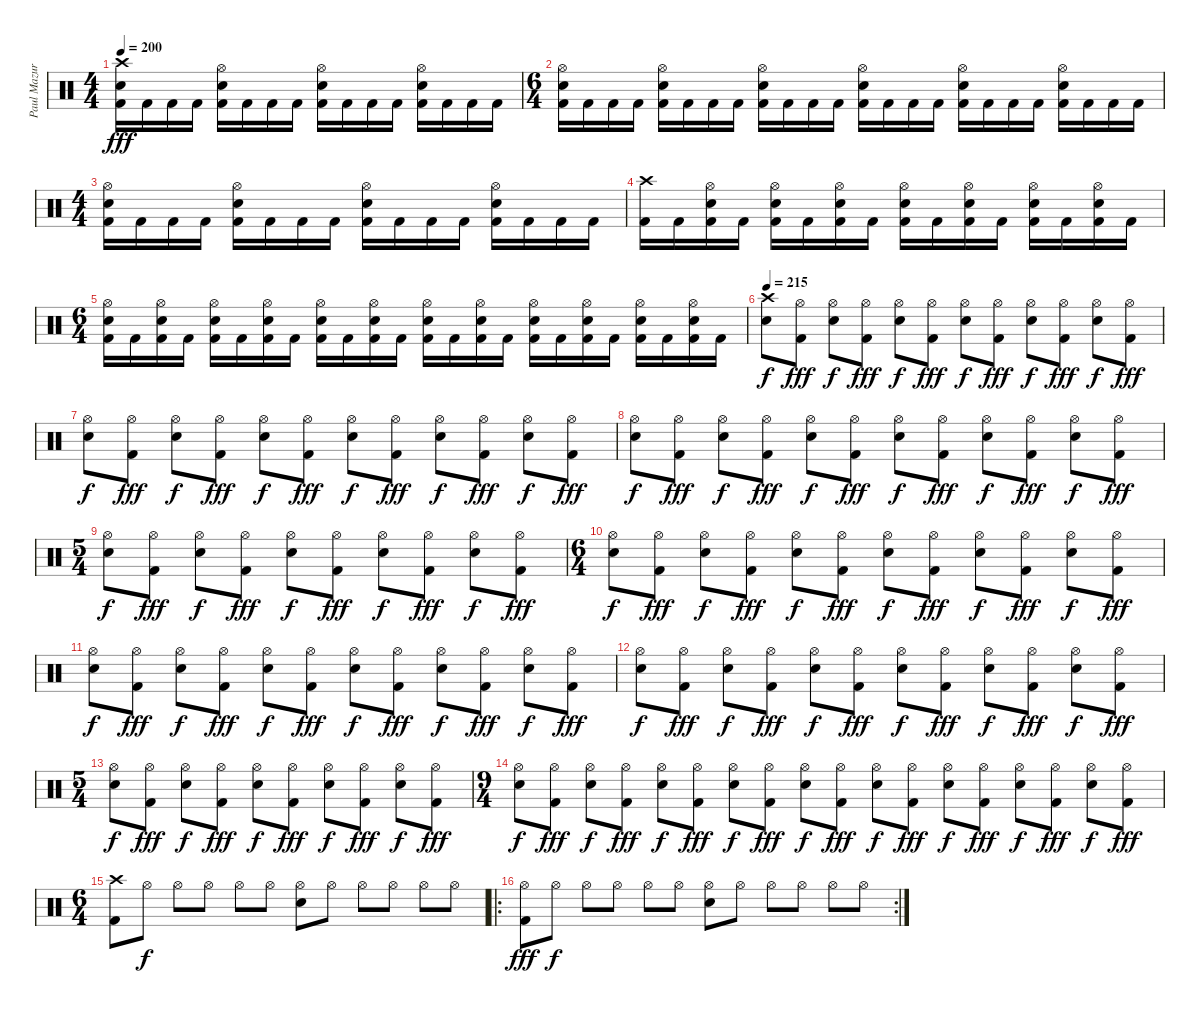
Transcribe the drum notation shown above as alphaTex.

\track ("Paul Mazurkiewicz" "Paul Mazur") {instrument percussion}
\staff {score}
\articulation defaults
\ts (4 4)
\tempo 200
\clef neutral
\ks c
("Crash high (hit)" "Electric Snare (hit)" "Kick (hit) 2").16{dy fff} "Kick (hit) 2".16 "Kick (hit) 2".16 "Kick (hit) 2".16 ("Hi-Hat (open)" "Electric Snare (hit)" "Kick (hit) 2").16 "Kick (hit) 2".16 "Kick (hit) 2".16 "Kick (hit) 2".16 ("Hi-Hat (open)" "Electric Snare (hit)" "Kick (hit) 2").16 "Kick (hit) 2".16 "Kick (hit) 2".16 "Kick (hit) 2".16 ("Hi-Hat (open)" "Electric Snare (hit)" "Kick (hit) 2").16 "Kick (hit) 2".16 "Kick (hit) 2".16 "Kick (hit) 2".16 |
\ts (6 4)
("Hi-Hat (open)" "Electric Snare (hit)" "Kick (hit) 2").16 "Kick (hit) 2".16 "Kick (hit) 2".16 "Kick (hit) 2".16 ("Hi-Hat (open)" "Electric Snare (hit)" "Kick (hit) 2").16 "Kick (hit) 2".16 "Kick (hit) 2".16 "Kick (hit) 2".16 ("Hi-Hat (open)" "Electric Snare (hit)" "Kick (hit) 2").16 "Kick (hit) 2".16 "Kick (hit) 2".16 "Kick (hit) 2".16 ("Hi-Hat (open)" "Electric Snare (hit)" "Kick (hit) 2").16 "Kick (hit) 2".16 "Kick (hit) 2".16 "Kick (hit) 2".16 ("Hi-Hat (open)" "Electric Snare (hit)" "Kick (hit) 2").16 "Kick (hit) 2".16 "Kick (hit) 2".16 "Kick (hit) 2".16 ("Hi-Hat (open)" "Electric Snare (hit)" "Kick (hit) 2").16 "Kick (hit) 2".16 "Kick (hit) 2".16 "Kick (hit) 2".16 |
\ts (4 4)
("Hi-Hat (open)" "Electric Snare (hit)" "Kick (hit) 2").16 "Kick (hit) 2".16 "Kick (hit) 2".16 "Kick (hit) 2".16 ("Hi-Hat (open)" "Electric Snare (hit)" "Kick (hit) 2").16 "Kick (hit) 2".16 "Kick (hit) 2".16 "Kick (hit) 2".16 ("Hi-Hat (open)" "Electric Snare (hit)" "Kick (hit) 2").16 "Kick (hit) 2".16 "Kick (hit) 2".16 "Kick (hit) 2".16 ("Hi-Hat (open)" "Electric Snare (hit)" "Kick (hit) 2").16 "Kick (hit) 2".16 "Kick (hit) 2".16 "Kick (hit) 2".16 |
("Crash high (hit)" "Kick (hit) 2").16 "Kick (hit) 2".16 ("Hi-Hat (open)" "Electric Snare (hit)" "Kick (hit) 2").16 "Kick (hit) 2".16 ("Hi-Hat (open)" "Electric Snare (hit)" "Kick (hit) 2").16 "Kick (hit) 2".16 ("Hi-Hat (open)" "Electric Snare (hit)" "Kick (hit) 2").16 "Kick (hit) 2".16 ("Hi-Hat (open)" "Electric Snare (hit)" "Kick (hit) 2").16 "Kick (hit) 2".16 ("Hi-Hat (open)" "Electric Snare (hit)" "Kick (hit) 2").16 "Kick (hit) 2".16 ("Hi-Hat (open)" "Electric Snare (hit)" "Kick (hit) 2").16 "Kick (hit) 2".16 ("Hi-Hat (open)" "Electric Snare (hit)" "Kick (hit) 2").16 "Kick (hit) 2".16 |
\ts (6 4)
("Hi-Hat (open)" "Electric Snare (hit)" "Kick (hit) 2").16 "Kick (hit) 2".16 ("Hi-Hat (open)" "Electric Snare (hit)" "Kick (hit) 2").16 "Kick (hit) 2".16 ("Hi-Hat (open)" "Electric Snare (hit)" "Kick (hit) 2").16 "Kick (hit) 2".16 ("Hi-Hat (open)" "Electric Snare (hit)" "Kick (hit) 2").16 "Kick (hit) 2".16 ("Hi-Hat (open)" "Electric Snare (hit)" "Kick (hit) 2").16 "Kick (hit) 2".16 ("Hi-Hat (open)" "Electric Snare (hit)" "Kick (hit) 2").16 "Kick (hit) 2".16 ("Hi-Hat (open)" "Electric Snare (hit)" "Kick (hit) 2").16 "Kick (hit) 2".16 ("Hi-Hat (open)" "Electric Snare (hit)" "Kick (hit) 2").16 "Kick (hit) 2".16 ("Hi-Hat (open)" "Electric Snare (hit)" "Kick (hit) 2").16 "Kick (hit) 2".16 ("Hi-Hat (open)" "Electric Snare (hit)" "Kick (hit) 2").16 "Kick (hit) 2".16 ("Hi-Hat (open)" "Electric Snare (hit)" "Kick (hit) 2").16 "Kick (hit) 2".16 ("Hi-Hat (open)" "Electric Snare (hit)" "Kick (hit) 2").16 "Kick (hit) 2".16 |
\tempo 215
("Crash high (hit)" "Electric Snare (hit)").8{dy f} ("Hi-Hat (open)" "Kick (hit) 2").8{dy fff} ("Hi-Hat (open)" "Electric Snare (hit)").8{dy f} ("Hi-Hat (open)" "Kick (hit) 2").8{dy fff} ("Hi-Hat (open)" "Electric Snare (hit)").8{dy f} ("Hi-Hat (open)" "Kick (hit) 2").8{dy fff} ("Hi-Hat (open)" "Electric Snare (hit)").8{dy f} ("Hi-Hat (open)" "Kick (hit) 2").8{dy fff} ("Hi-Hat (open)" "Electric Snare (hit)").8{dy f} ("Hi-Hat (open)" "Kick (hit) 2").8{dy fff} ("Hi-Hat (open)" "Electric Snare (hit)").8{dy f} ("Hi-Hat (open)" "Kick (hit) 2").8{dy fff} |
("Hi-Hat (open)" "Electric Snare (hit)").8{dy f} ("Hi-Hat (open)" "Kick (hit) 2").8{dy fff} ("Hi-Hat (open)" "Electric Snare (hit)").8{dy f} ("Hi-Hat (open)" "Kick (hit) 2").8{dy fff} ("Hi-Hat (open)" "Electric Snare (hit)").8{dy f} ("Hi-Hat (open)" "Kick (hit) 2").8{dy fff} ("Hi-Hat (open)" "Electric Snare (hit)").8{dy f} ("Hi-Hat (open)" "Kick (hit) 2").8{dy fff} ("Hi-Hat (open)" "Electric Snare (hit)").8{dy f} ("Hi-Hat (open)" "Kick (hit) 2").8{dy fff} ("Hi-Hat (open)" "Electric Snare (hit)").8{dy f} ("Hi-Hat (open)" "Kick (hit) 2").8{dy fff} |
("Hi-Hat (open)" "Electric Snare (hit)").8{dy f} ("Hi-Hat (open)" "Kick (hit) 2").8{dy fff} ("Hi-Hat (open)" "Electric Snare (hit)").8{dy f} ("Hi-Hat (open)" "Kick (hit) 2").8{dy fff} ("Hi-Hat (open)" "Electric Snare (hit)").8{dy f} ("Hi-Hat (open)" "Kick (hit) 2").8{dy fff} ("Hi-Hat (open)" "Electric Snare (hit)").8{dy f} ("Hi-Hat (open)" "Kick (hit) 2").8{dy fff} ("Hi-Hat (open)" "Electric Snare (hit)").8{dy f} ("Hi-Hat (open)" "Kick (hit) 2").8{dy fff} ("Hi-Hat (open)" "Electric Snare (hit)").8{dy f} ("Hi-Hat (open)" "Kick (hit) 2").8{dy fff} |
\ts (5 4)
("Hi-Hat (open)" "Electric Snare (hit)").8{dy f} ("Hi-Hat (open)" "Kick (hit) 2").8{dy fff} ("Hi-Hat (open)" "Electric Snare (hit)").8{dy f} ("Hi-Hat (open)" "Kick (hit) 2").8{dy fff} ("Hi-Hat (open)" "Electric Snare (hit)").8{dy f} ("Hi-Hat (open)" "Kick (hit) 2").8{dy fff} ("Hi-Hat (open)" "Electric Snare (hit)").8{dy f} ("Hi-Hat (open)" "Kick (hit) 2").8{dy fff} ("Hi-Hat (open)" "Electric Snare (hit)").8{dy f} ("Hi-Hat (open)" "Kick (hit) 2").8{dy fff} |
\ts (6 4)
("Hi-Hat (open)" "Electric Snare (hit)").8{dy f} ("Hi-Hat (open)" "Kick (hit) 2").8{dy fff} ("Hi-Hat (open)" "Electric Snare (hit)").8{dy f} ("Hi-Hat (open)" "Kick (hit) 2").8{dy fff} ("Hi-Hat (open)" "Electric Snare (hit)").8{dy f} ("Hi-Hat (open)" "Kick (hit) 2").8{dy fff} ("Hi-Hat (open)" "Electric Snare (hit)").8{dy f} ("Hi-Hat (open)" "Kick (hit) 2").8{dy fff} ("Hi-Hat (open)" "Electric Snare (hit)").8{dy f} ("Hi-Hat (open)" "Kick (hit) 2").8{dy fff} ("Hi-Hat (open)" "Electric Snare (hit)").8{dy f} ("Hi-Hat (open)" "Kick (hit) 2").8{dy fff} |
("Hi-Hat (open)" "Electric Snare (hit)").8{dy f} ("Hi-Hat (open)" "Kick (hit) 2").8{dy fff} ("Hi-Hat (open)" "Electric Snare (hit)").8{dy f} ("Hi-Hat (open)" "Kick (hit) 2").8{dy fff} ("Hi-Hat (open)" "Electric Snare (hit)").8{dy f} ("Hi-Hat (open)" "Kick (hit) 2").8{dy fff} ("Hi-Hat (open)" "Electric Snare (hit)").8{dy f} ("Hi-Hat (open)" "Kick (hit) 2").8{dy fff} ("Hi-Hat (open)" "Electric Snare (hit)").8{dy f} ("Hi-Hat (open)" "Kick (hit) 2").8{dy fff} ("Hi-Hat (open)" "Electric Snare (hit)").8{dy f} ("Hi-Hat (open)" "Kick (hit) 2").8{dy fff} |
("Hi-Hat (open)" "Electric Snare (hit)").8{dy f} ("Hi-Hat (open)" "Kick (hit) 2").8{dy fff} ("Hi-Hat (open)" "Electric Snare (hit)").8{dy f} ("Hi-Hat (open)" "Kick (hit) 2").8{dy fff} ("Hi-Hat (open)" "Electric Snare (hit)").8{dy f} ("Hi-Hat (open)" "Kick (hit) 2").8{dy fff} ("Hi-Hat (open)" "Electric Snare (hit)").8{dy f} ("Hi-Hat (open)" "Kick (hit) 2").8{dy fff} ("Hi-Hat (open)" "Electric Snare (hit)").8{dy f} ("Hi-Hat (open)" "Kick (hit) 2").8{dy fff} ("Hi-Hat (open)" "Electric Snare (hit)").8{dy f} ("Hi-Hat (open)" "Kick (hit) 2").8{dy fff} |
\ts (5 4)
("Hi-Hat (open)" "Electric Snare (hit)").8{dy f} ("Hi-Hat (open)" "Kick (hit) 2").8{dy fff} ("Hi-Hat (open)" "Electric Snare (hit)").8{dy f} ("Hi-Hat (open)" "Kick (hit) 2").8{dy fff} ("Hi-Hat (open)" "Electric Snare (hit)").8{dy f} ("Hi-Hat (open)" "Kick (hit) 2").8{dy fff} ("Hi-Hat (open)" "Electric Snare (hit)").8{dy f} ("Hi-Hat (open)" "Kick (hit) 2").8{dy fff} ("Hi-Hat (open)" "Electric Snare (hit)").8{dy f} ("Hi-Hat (open)" "Kick (hit) 2").8{dy fff} |
\ts (9 4)
("Hi-Hat (open)" "Electric Snare (hit)").8{dy f} ("Hi-Hat (open)" "Kick (hit) 2").8{dy fff} ("Hi-Hat (open)" "Electric Snare (hit)").8{dy f} ("Hi-Hat (open)" "Kick (hit) 2").8{dy fff} ("Hi-Hat (open)" "Electric Snare (hit)").8{dy f} ("Hi-Hat (open)" "Kick (hit) 2").8{dy fff} ("Hi-Hat (open)" "Electric Snare (hit)").8{dy f} ("Hi-Hat (open)" "Kick (hit) 2").8{dy fff} ("Hi-Hat (open)" "Electric Snare (hit)").8{dy f} ("Hi-Hat (open)" "Kick (hit) 2").8{dy fff} ("Hi-Hat (open)" "Electric Snare (hit)").8{dy f} ("Hi-Hat (open)" "Kick (hit) 2").8{dy fff} ("Hi-Hat (open)" "Electric Snare (hit)").8{dy f} ("Hi-Hat (open)" "Kick (hit) 2").8{dy fff} ("Hi-Hat (open)" "Electric Snare (hit)").8{dy f} ("Hi-Hat (open)" "Kick (hit) 2").8{dy fff} ("Hi-Hat (open)" "Electric Snare (hit)").8{dy f} ("Hi-Hat (open)" "Kick (hit) 2").8{dy fff} |
\ts (6 4)
("Crash high (hit)" "Kick (hit) 2").8 "Hi-Hat (open)".8{dy f} "Hi-Hat (open)".8 "Hi-Hat (open)".8 "Hi-Hat (open)".8 "Hi-Hat (open)".8 ("Hi-Hat (open)" "Electric Snare (hit)").8 "Hi-Hat (open)".8 "Hi-Hat (open)".8 "Hi-Hat (open)".8 "Hi-Hat (open)".8 "Hi-Hat (open)".8 |
\ro
\rc 2
("Hi-Hat (open)" "Kick (hit) 2").8{dy fff} "Hi-Hat (open)".8{dy f} "Hi-Hat (open)".8 "Hi-Hat (open)".8 "Hi-Hat (open)".8 "Hi-Hat (open)".8 ("Hi-Hat (open)" "Electric Snare (hit)").8 "Hi-Hat (open)".8 "Hi-Hat (open)".8 "Hi-Hat (open)".8 "Hi-Hat (open)".8 "Hi-Hat (open)".8
